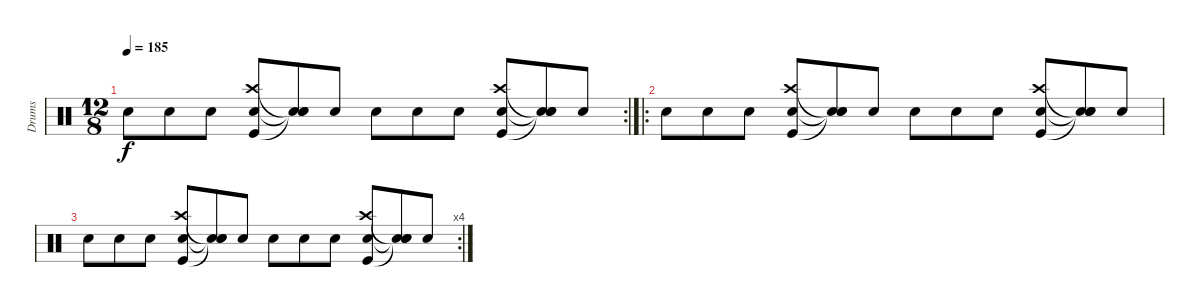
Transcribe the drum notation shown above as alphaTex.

\track ("Drums" "Drums") {instrument percussion}
\staff {score}
\articulation defaults
\rc 2
\ts (12 8)
\tempo 185
\clef neutral
\ks c "Snare (hit) 2".8{dy f} "Snare (hit) 2".8 "Snare (hit) 2".8
("Electric Snare (hit)" "Crash high (hit)" "Kick (hit)").8 ("Snare (hit)"{t} "Snare (hit)"{t} "Snare (hit)"{t}).8 "Snare (hit) 2".8 "Snare (hit) 2".8 "Snare (hit) 2".8 "Snare (hit) 2".8 ("Electric Snare (hit)" "Crash high (hit)" "Kick (hit)").8 ("Snare (hit)"{t} "Snare (hit)"{t} "Snare (hit)"{t}).8 "Snare (hit) 2".8 |
\ro "Snare (hit) 2".8 "Snare (hit) 2".8 "Snare (hit) 2".8
("Electric Snare (hit)" "Crash high (hit)" "Kick (hit)").8 ("Snare (hit)"{t} "Snare (hit)"{t} "Snare (hit)"{t}).8 "Snare (hit) 2".8 "Snare (hit) 2".8 "Snare (hit) 2".8 "Snare (hit) 2".8 ("Electric Snare (hit)" "Crash high (hit)" "Kick (hit)").8 ("Snare (hit)"{t} "Snare (hit)"{t} "Snare (hit)"{t}).8 "Snare (hit) 2".8 |
\rc 4 "Snare (hit) 2".8 "Snare (hit) 2".8 "Snare (hit) 2".8
("Electric Snare (hit)" "Crash high (hit)" "Kick (hit)").8 ("Snare (hit)"{t} "Snare (hit)"{t} "Snare (hit)"{t}).8 "Snare (hit) 2".8 "Snare (hit) 2".8 "Snare (hit) 2".8 "Snare (hit) 2".8 ("Electric Snare (hit)" "Crash high (hit)" "Kick (hit)").8 ("Snare (hit)"{t} "Snare (hit)"{t} "Snare (hit)"{t}).8 "Snare (hit) 2".8
